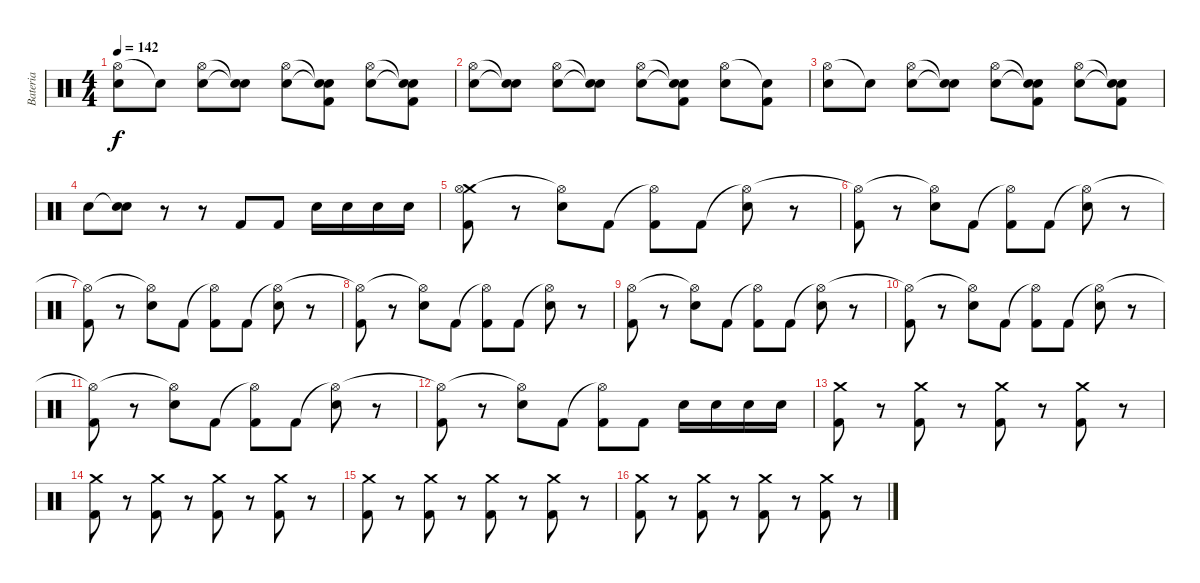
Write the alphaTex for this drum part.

\track ("Bateria" "Bateria") {instrument percussion}
\staff {score}
\articulation defaults
\ts (4 4)
\tempo 142
\clef neutral
\ks c
("Hi-Hat (open)" "Electric Snare (hit)").8{dy f} "Snare (hit)"{t}.8 ("Hi-Hat (open)" "Electric Snare (hit)").8 ("Snare (hit)"{t} "Snare (hit)"{t}).8 ("Hi-Hat (open)" "Electric Snare (hit)").8 ("Snare (hit)"{t} "Snare (hit)"{t} "Kick (hit) 2").8 ("Hi-Hat (open)" "Electric Snare (hit)").8 ("Snare (hit)"{t} "Snare (hit)"{t} "Kick (hit) 2").8 |
("Hi-Hat (open)" "Electric Snare (hit)").8 ("Snare (hit)"{t} "Snare (hit)"{t}).8 ("Hi-Hat (open)" "Electric Snare (hit)").8 ("Snare (hit)"{t} "Snare (hit)"{t}).8 ("Hi-Hat (open)" "Electric Snare (hit)").8 ("Snare (hit)"{t} "Snare (hit)"{t} "Kick (hit) 2").8 ("Hi-Hat (open)" "Electric Snare (hit)").8 ("Snare (hit)"{t} "Kick (hit) 2").8 |
("Hi-Hat (open)" "Electric Snare (hit)").8 "Snare (hit)"{t}.8 ("Hi-Hat (open)" "Electric Snare (hit)").8 ("Snare (hit)"{t} "Snare (hit)"{t}).8 ("Hi-Hat (open)" "Electric Snare (hit)").8 ("Snare (hit)"{t} "Snare (hit)"{t} "Kick (hit) 2").8 ("Hi-Hat (open)" "Electric Snare (hit)").8 ("Snare (hit)"{t} "Snare (hit)"{t} "Kick (hit) 2").8 |
"Electric Snare (hit)".8 ("Snare (hit)"{t} "Electric Snare (hit)").8 r.8 r.8 "Kick (hit) 2".8 "Kick (hit) 2".8 "Electric Snare (hit)".16 "Electric Snare (hit)".16 "Electric Snare (hit)".16 "Electric Snare (hit)".16 |
("Crash medium (hit)" "Hi-Hat (open)" "Kick (hit) 2").8 r.8 ("Hi-Hat (open)"{t} "Electric Snare (hit)").8 "Kick (hit) 2".8 ("Hi-Hat (open)"{t} "Kick (hit) 2").8 "Kick (hit) 2".8 ("Hi-Hat (open)"{t} "Electric Snare (hit)").8 r.8 |
("Hi-Hat (open)"{t} "Kick (hit) 2").8 r.8 ("Hi-Hat (open)"{t} "Electric Snare (hit)").8 "Kick (hit) 2".8 ("Hi-Hat (open)"{t} "Kick (hit) 2").8 "Kick (hit) 2".8 ("Hi-Hat (open)"{t} "Electric Snare (hit)").8 r.8 |
("Hi-Hat (open)"{t} "Kick (hit) 2").8 r.8 ("Hi-Hat (open)"{t} "Electric Snare (hit)").8 "Kick (hit) 2".8 ("Hi-Hat (open)"{t} "Kick (hit) 2").8 "Kick (hit) 2".8 ("Hi-Hat (open)"{t} "Electric Snare (hit)").8 r.8 |
("Hi-Hat (open)"{t} "Kick (hit) 2").8 r.8 ("Hi-Hat (open)"{t} "Electric Snare (hit)").8 "Kick (hit) 2".8 ("Hi-Hat (open)"{t} "Kick (hit) 2").8 "Kick (hit) 2".8 ("Hi-Hat (open)"{t} "Electric Snare (hit)").8 r.8 |
("Hi-Hat (open)" "Kick (hit) 2").8 r.8 ("Hi-Hat (open)"{t} "Electric Snare (hit)").8 "Kick (hit) 2".8 ("Hi-Hat (open)"{t} "Kick (hit) 2").8 "Kick (hit) 2".8 ("Hi-Hat (open)"{t} "Electric Snare (hit)").8 r.8 |
("Hi-Hat (open)"{t} "Kick (hit) 2").8 r.8 ("Hi-Hat (open)"{t} "Electric Snare (hit)").8 "Kick (hit) 2".8 ("Hi-Hat (open)"{t} "Kick (hit) 2").8 "Kick (hit) 2".8 ("Hi-Hat (open)"{t} "Electric Snare (hit)").8 r.8 |
("Hi-Hat (open)"{t} "Kick (hit) 2").8 r.8 ("Hi-Hat (open)"{t} "Electric Snare (hit)").8 "Kick (hit) 2".8 ("Hi-Hat (open)"{t} "Kick (hit) 2").8 "Kick (hit) 2".8 ("Hi-Hat (open)"{t} "Electric Snare (hit)").8 r.8 |
("Hi-Hat (open)"{t} "Kick (hit) 2").8 r.8 ("Hi-Hat (open)"{t} "Electric Snare (hit)").8 "Kick (hit) 2".8 ("Hi-Hat (open)"{t} "Kick (hit) 2").8 "Kick (hit) 2".8 "Electric Snare (hit)".16 "Electric Snare (hit)".16 "Electric Snare (hit)".16 "Electric Snare (hit)".16 |
("Crash medium (hit)" "Kick (hit) 2").8 r.8 ("Crash medium (hit)" "Kick (hit) 2").8 r.8 ("Crash medium (hit)" "Kick (hit) 2").8 r.8 ("Crash medium (hit)" "Kick (hit) 2").8 r.8 |
("Crash medium (hit)" "Kick (hit) 2").8 r.8 ("Crash medium (hit)" "Kick (hit) 2").8 r.8 ("Crash medium (hit)" "Kick (hit) 2").8 r.8 ("Crash medium (hit)" "Kick (hit) 2").8 r.8 |
("Crash medium (hit)" "Kick (hit) 2").8 r.8 ("Crash medium (hit)" "Kick (hit) 2").8 r.8 ("Crash medium (hit)" "Kick (hit) 2").8 r.8 ("Crash medium (hit)" "Kick (hit) 2").8 r.8 |
("Crash medium (hit)" "Kick (hit) 2").8 r.8 ("Crash medium (hit)" "Kick (hit) 2").8 r.8 ("Crash medium (hit)" "Kick (hit) 2").8 r.8 ("Crash medium (hit)" "Kick (hit) 2").8 r.8
